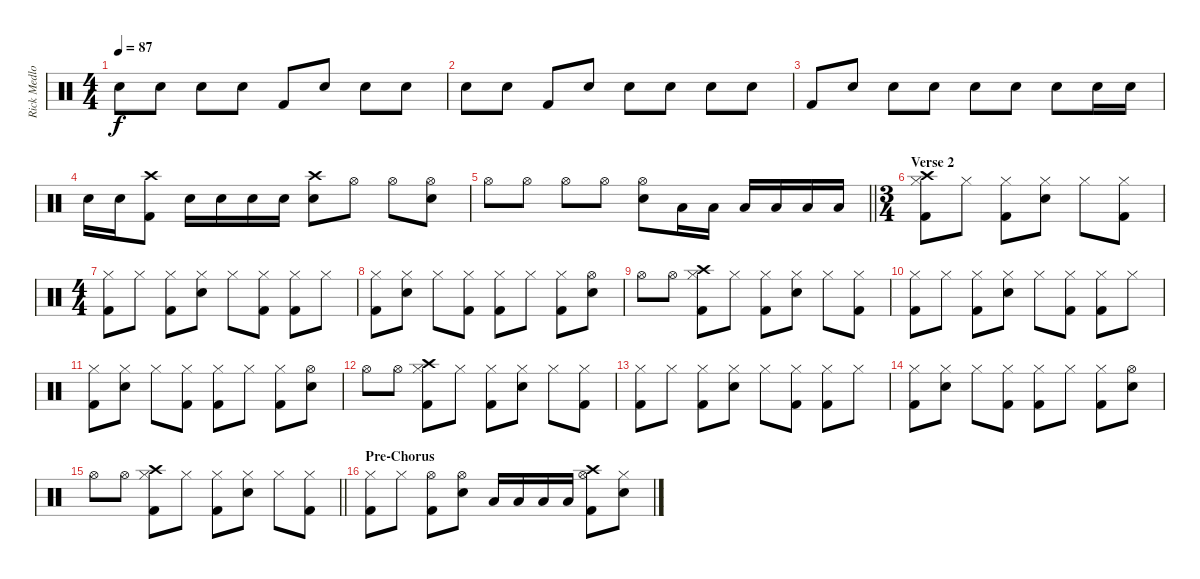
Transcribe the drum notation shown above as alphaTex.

\track ("Rick Medlocke" "Rick Medlo") {instrument percussion}
\staff {score}
\articulation defaults
\ts (4 4)
\tempo 87
\clef neutral
\ks c "Electric Snare (hit)".8{dy f} "Snare (hit) 2".8 "Electric Snare (hit)".8 "Electric Snare (hit)".8 "Kick (hit) 2".8 "Electric Snare (hit)".8 "Electric Snare (hit)".8 "Snare (hit) 2".8
|
"Electric Snare (hit)".8 "Electric Snare (hit)".8 "Kick (hit) 2".8 "Electric Snare (hit)".8 "Electric Snare (hit)".8 "Snare (hit) 2".8 "Electric Snare (hit)".8 "Electric Snare (hit)".8 |
"Kick (hit) 2".8 "Electric Snare (hit)".8 "Electric Snare (hit)".8 "Snare (hit) 2".8 "Electric Snare (hit)".8 "Electric Snare (hit)".8 "Snare (hit) 2".8 "Electric Snare (hit)".16 "Electric Snare (hit)".16 |
"Electric Snare (hit)".16 "Electric Snare (hit)".16 ("Crash high (hit)" "Kick (hit) 2").8 "Electric Snare (hit)".16 "Electric Snare (hit)".16 "Electric Snare (hit)".16 "Electric Snare (hit)".16 ("Crash high (hit)" "Snare (hit) 2").8 "Hi-Hat (open)".8 "Hi-Hat (open)".8 ("Hi-Hat (open)" "Electric Snare (hit)").8 |
\barLineRight lightlight "Hi-Hat (open)".8 "Hi-Hat (open)".8 "Hi-Hat (open)".8 "Hi-Hat (open)".8
("Hi-Hat (open)" "Electric Snare (hit)").8 "Low Tom (hit)".16 "Low Tom (hit)".16 "Low Tom (hit)".16 "Low Tom (hit)".16 "Low Tom (hit)".16 "Low Tom (hit)".16 |
\ts (3 4)
\section ("" "Verse 2")
("Crash high (hit)" "Hi-Hat (closed)" "Kick (hit) 2").8 "Hi-Hat (closed)".8 ("Hi-Hat (closed)" "Kick (hit) 2").8 ("Hi-Hat (closed)" "Electric Snare (hit)").8 "Hi-Hat (closed)".8 ("Hi-Hat (closed)" "Kick (hit) 2").8 |
\ts (4 4)
("Hi-Hat (closed)" "Kick (hit) 2").8 "Hi-Hat (closed)".8 ("Hi-Hat (closed)" "Kick (hit) 2").8 ("Hi-Hat (closed)" "Electric Snare (hit)").8 "Hi-Hat (closed)".8 ("Hi-Hat (closed)" "Kick (hit) 2").8 ("Hi-Hat (closed)" "Kick (hit) 2").8 "Hi-Hat (closed)".8 |
("Hi-Hat (closed)" "Kick (hit) 2").8 ("Hi-Hat (closed)" "Electric Snare (hit)").8 "Hi-Hat (closed)".8 ("Hi-Hat (closed)" "Kick (hit) 2").8 ("Hi-Hat (closed)" "Kick (hit) 2").8 "Hi-Hat (closed)".8 ("Hi-Hat (closed)" "Kick (hit) 2").8 ("Hi-Hat (open)" "Electric Snare (hit)").8 |
"Hi-Hat (open)".8 "Hi-Hat (open)".8 ("Crash high (hit)" "Hi-Hat (closed)" "Kick (hit) 2").8 "Hi-Hat (closed)".8 ("Hi-Hat (closed)" "Kick (hit) 2").8 ("Hi-Hat (closed)" "Electric Snare (hit)").8 "Hi-Hat (closed)".8 ("Hi-Hat (closed)" "Kick (hit) 2").8 |
("Hi-Hat (closed)" "Kick (hit) 2").8 "Hi-Hat (closed)".8 ("Hi-Hat (closed)" "Kick (hit) 2").8 ("Hi-Hat (closed)" "Electric Snare (hit)").8 "Hi-Hat (closed)".8 ("Hi-Hat (closed)" "Kick (hit) 2").8 ("Hi-Hat (closed)" "Kick (hit) 2").8 "Hi-Hat (closed)".8 |
("Hi-Hat (closed)" "Kick (hit) 2").8 ("Hi-Hat (closed)" "Electric Snare (hit)").8 "Hi-Hat (closed)".8 ("Hi-Hat (closed)" "Kick (hit) 2").8 ("Hi-Hat (closed)" "Kick (hit) 2").8 "Hi-Hat (closed)".8 ("Hi-Hat (closed)" "Kick (hit) 2").8 ("Hi-Hat (open)" "Electric Snare (hit)").8 |
"Hi-Hat (open)".8 "Hi-Hat (open)".8 ("Crash high (hit)" "Hi-Hat (closed)" "Kick (hit) 2").8 "Hi-Hat (closed)".8 ("Hi-Hat (closed)" "Kick (hit) 2").8 ("Hi-Hat (closed)" "Electric Snare (hit)").8 "Hi-Hat (closed)".8 ("Hi-Hat (closed)" "Kick (hit) 2").8 |
("Hi-Hat (closed)" "Kick (hit) 2").8 "Hi-Hat (closed)".8 ("Hi-Hat (closed)" "Kick (hit) 2").8 ("Hi-Hat (closed)" "Electric Snare (hit)").8 "Hi-Hat (closed)".8 ("Hi-Hat (closed)" "Kick (hit) 2").8 ("Hi-Hat (closed)" "Kick (hit) 2").8 "Hi-Hat (closed)".8 |
("Hi-Hat (closed)" "Kick (hit) 2").8 ("Hi-Hat (closed)" "Electric Snare (hit)").8 "Hi-Hat (closed)".8 ("Hi-Hat (closed)" "Kick (hit) 2").8 ("Hi-Hat (closed)" "Kick (hit) 2").8 "Hi-Hat (closed)".8 ("Hi-Hat (closed)" "Kick (hit) 2").8 ("Hi-Hat (open)" "Electric Snare (hit)").8 |
\barLineRight lightlight "Hi-Hat (open)".8 "Hi-Hat (open)".8
("Crash high (hit)" "Hi-Hat (closed)" "Kick (hit) 2").8 "Hi-Hat (closed)".8 ("Hi-Hat (closed)" "Kick (hit) 2").8 ("Hi-Hat (closed)" "Electric Snare (hit)").8 "Hi-Hat (closed)".8 ("Hi-Hat (closed)" "Kick (hit) 2").8 |
\section ("" "Pre-Chorus")
("Hi-Hat (closed)" "Kick (hit) 2").8 "Hi-Hat (closed)".8 ("Hi-Hat (open)" "Kick (hit) 2").8 ("Hi-Hat (open)" "Electric Snare (hit)").8 "Low Tom (hit)".16 "Low Tom (hit)".16 "Low Tom (hit)".16 "Low Tom (hit)".16 ("Crash high (hit)" "Hi-Hat (open)" "Kick (hit) 2").8 ("Hi-Hat (closed)" "Electric Snare (hit)").8
